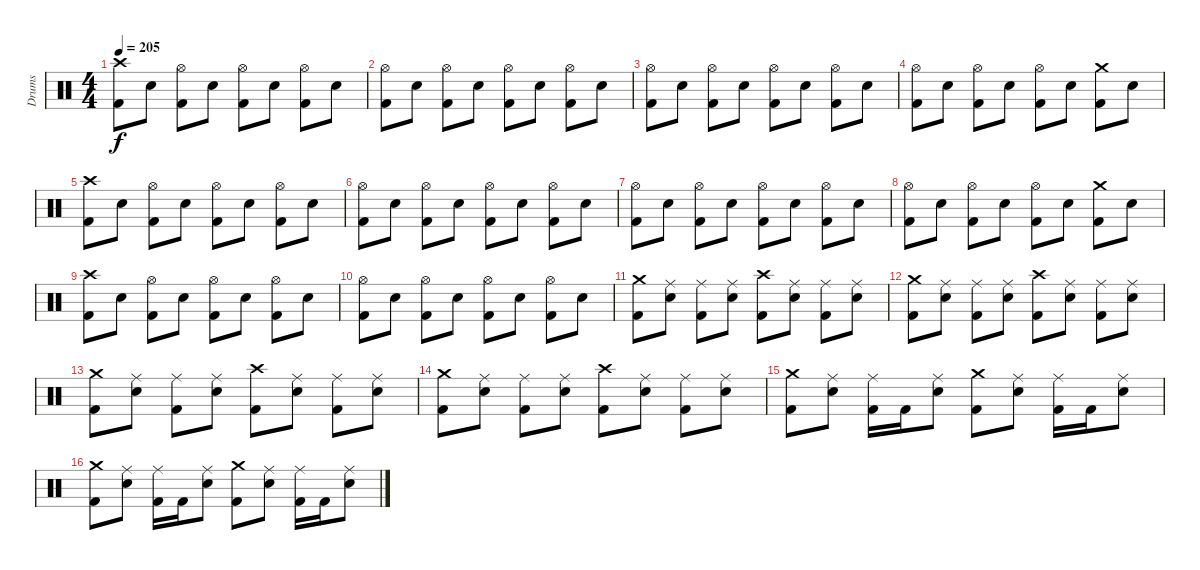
\track ("Drums" "Drums") {instrument percussion}
\staff {score}
\articulation defaults
\ts (4 4)
\tempo 205
\clef neutral
\ks c
("Crash high (hit)" "Kick (hit) 2").8{dy f} "Electric Snare (hit)".8 ("Hi-Hat (open)" "Kick (hit) 2").8 "Electric Snare (hit)".8 ("Hi-Hat (open)" "Kick (hit) 2").8 "Electric Snare (hit)".8 ("Hi-Hat (open)" "Kick (hit) 2").8 "Electric Snare (hit)".8 |
("Hi-Hat (open)" "Kick (hit) 2").8 "Electric Snare (hit)".8 ("Hi-Hat (open)" "Kick (hit) 2").8 "Electric Snare (hit)".8 ("Hi-Hat (open)" "Kick (hit) 2").8 "Electric Snare (hit)".8 ("Hi-Hat (open)" "Kick (hit) 2").8 "Electric Snare (hit)".8 |
("Hi-Hat (open)" "Kick (hit) 2").8 "Electric Snare (hit)".8 ("Hi-Hat (open)" "Kick (hit) 2").8 "Electric Snare (hit)".8 ("Hi-Hat (open)" "Kick (hit) 2").8 "Electric Snare (hit)".8 ("Hi-Hat (open)" "Kick (hit) 2").8 "Electric Snare (hit)".8 |
("Hi-Hat (open)" "Kick (hit) 2").8 "Electric Snare (hit)".8 ("Hi-Hat (open)" "Kick (hit) 2").8 "Electric Snare (hit)".8 ("Hi-Hat (open)" "Kick (hit) 2").8 "Electric Snare (hit)".8 ("Crash medium (hit)" "Kick (hit) 2").8 "Electric Snare (hit)".8 |
("Crash high (hit)" "Kick (hit) 2").8 "Electric Snare (hit)".8 ("Hi-Hat (open)" "Kick (hit) 2").8 "Electric Snare (hit)".8 ("Hi-Hat (open)" "Kick (hit) 2").8 "Electric Snare (hit)".8 ("Hi-Hat (open)" "Kick (hit) 2").8 "Electric Snare (hit)".8 |
("Hi-Hat (open)" "Kick (hit) 2").8 "Electric Snare (hit)".8 ("Hi-Hat (open)" "Kick (hit) 2").8 "Electric Snare (hit)".8 ("Hi-Hat (open)" "Kick (hit) 2").8 "Electric Snare (hit)".8 ("Hi-Hat (open)" "Kick (hit) 2").8 "Electric Snare (hit)".8 |
("Hi-Hat (open)" "Kick (hit) 2").8 "Electric Snare (hit)".8 ("Hi-Hat (open)" "Kick (hit) 2").8 "Electric Snare (hit)".8 ("Hi-Hat (open)" "Kick (hit) 2").8 "Electric Snare (hit)".8 ("Hi-Hat (open)" "Kick (hit) 2").8 "Electric Snare (hit)".8 |
("Hi-Hat (open)" "Kick (hit) 2").8 "Electric Snare (hit)".8 ("Hi-Hat (open)" "Kick (hit) 2").8 "Electric Snare (hit)".8 ("Hi-Hat (open)" "Kick (hit) 2").8 "Electric Snare (hit)".8 ("Crash medium (hit)" "Kick (hit) 2").8 "Electric Snare (hit)".8 |
("Crash high (hit)" "Kick (hit) 2").8 "Electric Snare (hit)".8 ("Hi-Hat (open)" "Kick (hit) 2").8 "Electric Snare (hit)".8 ("Hi-Hat (open)" "Kick (hit) 2").8 "Electric Snare (hit)".8 ("Hi-Hat (open)" "Kick (hit) 2").8 "Electric Snare (hit)".8 |
("Hi-Hat (open)" "Kick (hit) 2").8 "Electric Snare (hit)".8 ("Hi-Hat (open)" "Kick (hit) 2").8 "Electric Snare (hit)".8 ("Hi-Hat (open)" "Kick (hit) 2").8 "Electric Snare (hit)".8 ("Hi-Hat (open)" "Kick (hit) 2").8 "Electric Snare (hit)".8 |
("Crash medium (hit)" "Kick (hit) 2").8 ("Ride (middle)" "Electric Snare (hit)").8 ("Ride (middle)" "Kick (hit) 2").8 ("Ride (middle)" "Electric Snare (hit)").8 ("Crash high (hit)" "Kick (hit) 2").8 ("Ride (middle)" "Electric Snare (hit)").8 ("Ride (middle)" "Kick (hit) 2").8 ("Ride (middle)" "Electric Snare (hit)").8 |
("Crash medium (hit)" "Kick (hit) 2").8 ("Ride (middle)" "Electric Snare (hit)").8 ("Ride (middle)" "Kick (hit) 2").8 ("Ride (middle)" "Electric Snare (hit)").8 ("Crash high (hit)" "Kick (hit) 2").8 ("Ride (middle)" "Electric Snare (hit)").8 ("Ride (middle)" "Kick (hit) 2").8 ("Ride (middle)" "Electric Snare (hit)").8 |
("Crash medium (hit)" "Kick (hit) 2").8 ("Ride (middle)" "Electric Snare (hit)").8 ("Ride (middle)" "Kick (hit) 2").8 ("Ride (middle)" "Electric Snare (hit)").8 ("Crash high (hit)" "Kick (hit) 2").8 ("Ride (middle)" "Electric Snare (hit)").8 ("Ride (middle)" "Kick (hit) 2").8 ("Ride (middle)" "Electric Snare (hit)").8 |
("Crash medium (hit)" "Kick (hit) 2").8 ("Ride (middle)" "Electric Snare (hit)").8 ("Ride (middle)" "Kick (hit) 2").8 ("Ride (middle)" "Electric Snare (hit)").8 ("Crash high (hit)" "Kick (hit) 2").8 ("Ride (middle)" "Electric Snare (hit)").8 ("Ride (middle)" "Kick (hit) 2").8 ("Ride (middle)" "Electric Snare (hit)").8 |
("Crash medium (hit)" "Kick (hit) 2").8 ("Ride (middle)" "Electric Snare (hit)").8 ("Ride (middle)" "Kick (hit) 2").16 "Kick (hit) 2".16 ("Ride (middle)" "Electric Snare (hit)").8 ("Crash medium (hit)" "Kick (hit) 2").8 ("Ride (middle)" "Electric Snare (hit)").8 ("Ride (middle)" "Kick (hit) 2").16 "Kick (hit) 2".16 ("Ride (middle)" "Electric Snare (hit)").8 |
("Crash medium (hit)" "Kick (hit) 2").8 ("Ride (middle)" "Electric Snare (hit)").8 ("Ride (middle)" "Kick (hit) 2").16 "Kick (hit) 2".16 ("Ride (middle)" "Electric Snare (hit)").8 ("Crash medium (hit)" "Kick (hit) 2").8 ("Ride (middle)" "Electric Snare (hit)").8 ("Ride (middle)" "Kick (hit) 2").16 "Kick (hit) 2".16 ("Ride (middle)" "Electric Snare (hit)").8
